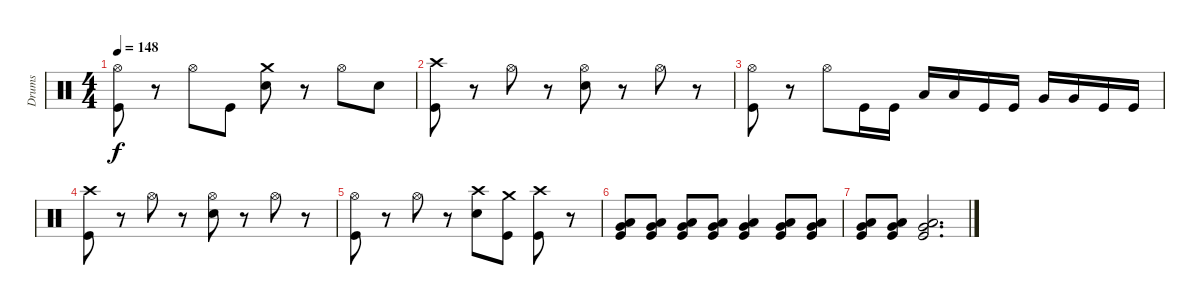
\track ("Drums" "Drums") {instrument percussion}
\staff {score}
\articulation defaults
\ts (4 4)
\tempo 148
\clef neutral
\ks c
("Hi-Hat (open)" "Kick (hit)").8{dy f} r.8 "Hi-Hat (open)".8 "Kick (hit)".8 ("Crash medium (hit)" "Snare (hit) 2").8 r.8 "Hi-Hat (open)".8 "Snare (hit) 2".8 |
("Crash high (hit)" "Kick (hit)").8 r.8 "Hi-Hat (open)".8 r.8 ("Hi-Hat (open)" "Snare (hit) 2").8 r.8 "Hi-Hat (open)".8 r.8 |
("Hi-Hat (open)" "Kick (hit)").8 r.8 "Hi-Hat (open)".8 "Kick (hit)".16 "Kick (hit)".16 "Low Tom (hit)".16 "Low Tom (hit)".16 "Kick (hit)".16 "Kick (hit)".16 "Very Low Tom (hit)".16 "Very Low Tom (hit)".16 "Kick (hit)".16 "Kick (hit)".16 |
("Crash high (hit)" "Kick (hit)").8 r.8 "Hi-Hat (open)".8 r.8 ("Hi-Hat (open)" "Snare (hit) 2").8 r.8 "Hi-Hat (open)".8 r.8 |
("Hi-Hat (open)" "Kick (hit)").8 r.8 "Hi-Hat (open)".8 r.8 ("Crash high (hit)" "Snare (hit) 2").8 ("Kick (hit)" "Crash medium (hit)").8 ("Crash high (hit)" "Kick (hit)").8 r.8 |
("Very Low Tom (hit)" "Low Floor Tom (hit)" "Kick (hit)").8 ("Very Low Tom (hit)" "Low Floor Tom (hit)" "Kick (hit)").8 ("Very Low Tom (hit)" "Low Floor Tom (hit)" "Kick (hit)").8 ("Very Low Tom (hit)" "Low Floor Tom (hit)" "Kick (hit)").8 ("Very Low Tom (hit)" "Low Floor Tom (hit)" "Kick (hit)").4 ("Very Low Tom (hit)" "Low Floor Tom (hit)" "Kick (hit)").8 ("Very Low Tom (hit)" "Low Floor Tom (hit)" "Kick (hit)").8 |
("Very Low Tom (hit)" "Low Floor Tom (hit)" "Kick (hit)").8 ("Very Low Tom (hit)" "Low Floor Tom (hit)" "Kick (hit)").8 ("Very Low Tom (hit)" "Low Floor Tom (hit)" "Kick (hit)").2{d}
